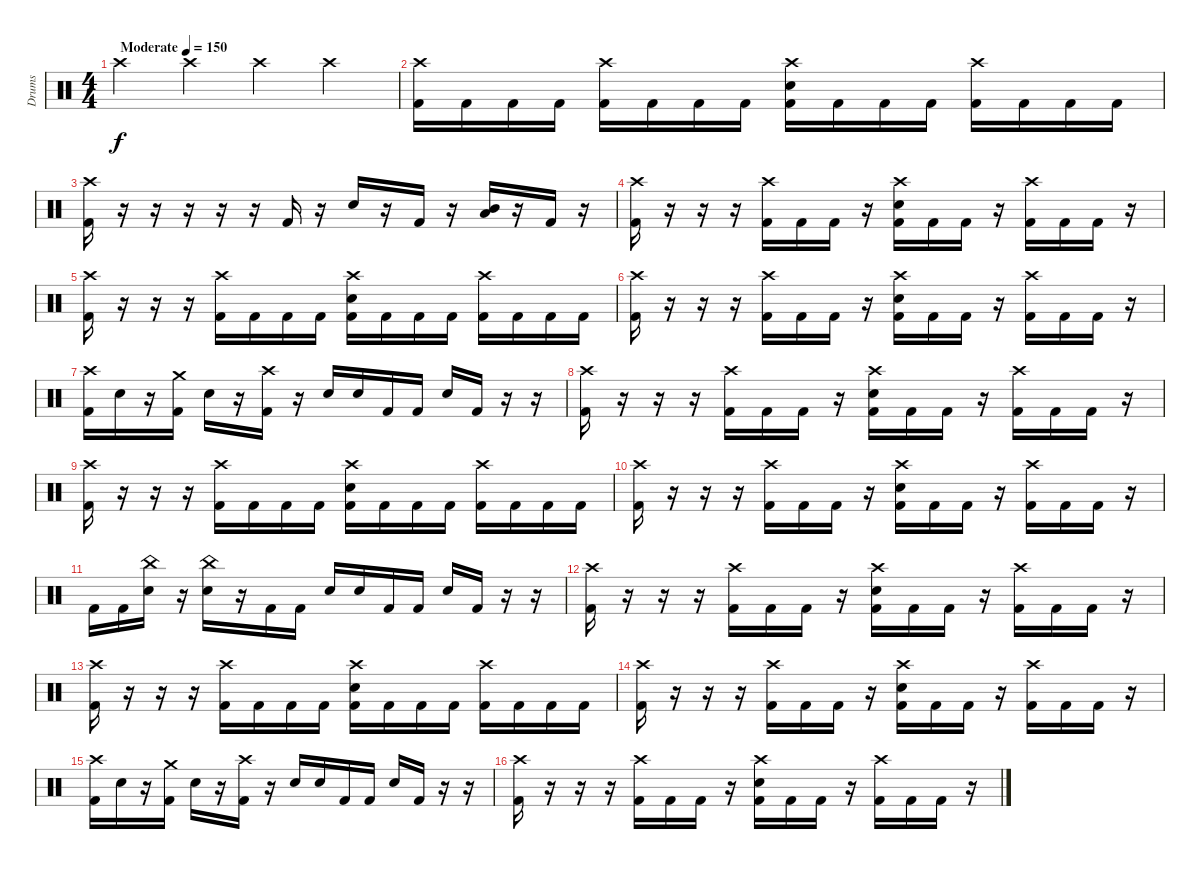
\track ("Drums" "Drums") {instrument percussion}
\staff {score}
\articulation defaults
\ts (4 4)
\tempo (150 "Moderate")
\clef neutral
\ks c "Crash high (hit)".4{dy f} "Crash high (hit)".4 "Crash high (hit)".4 "Crash high (hit)".4
|
("Crash high (hit)" "Kick (hit) 2").16 "Kick (hit) 2".16 "Kick (hit) 2".16 "Kick (hit) 2".16 ("Crash high (hit)" "Kick (hit) 2").16 "Kick (hit) 2".16 "Kick (hit) 2".16 "Kick (hit) 2".16 ("Crash high (hit)" "Snare (hit) 2" "Kick (hit) 2").16 "Kick (hit) 2".16 "Kick (hit) 2".16 "Kick (hit) 2".16 ("Crash high (hit)" "Kick (hit) 2").16 "Kick (hit) 2".16 "Kick (hit) 2".16 "Kick (hit) 2".16 |
("Crash high (hit)" "Kick (hit) 2").16 r.16 r.16 r.16 r.16 r.16 "Kick (hit) 2".16 r.16 "Snare (hit) 2".16 r.16 "Kick (hit) 2".16 r.16 ("Mid Tom (hit)" "Low Tom (hit)").16 r.16 "Kick (hit) 2".16 r.16 |
("Crash high (hit)" "Kick (hit) 2").16 r.16 r.16 r.16 ("Crash high (hit)" "Kick (hit) 2").16 "Kick (hit) 2".16 "Kick (hit) 2".16 r.16 ("Crash high (hit)" "Snare (hit) 2" "Kick (hit) 2").16 "Kick (hit) 2".16 "Kick (hit) 2".16 r.16 ("Crash high (hit)" "Kick (hit) 2").16 "Kick (hit) 2".16 "Kick (hit) 2".16 r.16 |
("Crash high (hit)" "Kick (hit) 2").16 r.16 r.16 r.16 ("Crash high (hit)" "Kick (hit) 2").16 "Kick (hit) 2".16 "Kick (hit) 2".16 "Kick (hit) 2".16 ("Crash high (hit)" "Snare (hit) 2" "Kick (hit) 2").16 "Kick (hit) 2".16 "Kick (hit) 2".16 "Kick (hit) 2".16 ("Crash high (hit)" "Kick (hit) 2").16 "Kick (hit) 2".16 "Kick (hit) 2".16 "Kick (hit) 2".16 |
("Crash high (hit)" "Kick (hit) 2").16 r.16 r.16 r.16 ("Crash high (hit)" "Kick (hit) 2").16 "Kick (hit) 2".16 "Kick (hit) 2".16 r.16 ("Crash high (hit)" "Snare (hit) 2" "Kick (hit) 2").16 "Kick (hit) 2".16 "Kick (hit) 2".16 r.16 ("Crash high (hit)" "Kick (hit) 2").16 "Kick (hit) 2".16 "Kick (hit) 2".16 r.16 |
("Crash high (hit)" "Kick (hit) 2").16 "Snare (hit) 2".16 r.16 ("Crash medium (hit)" "Kick (hit) 2").16 "Snare (hit) 2".16 r.16 ("Crash high (hit)" "Kick (hit) 2").16 r.16 "Snare (hit) 2".16 "Snare (hit) 2".16 "Kick (hit) 2".16 "Kick (hit) 2".16 "Snare (hit) 2".16 "Kick (hit) 2".16 r.16 r.16 |
("Crash high (hit)" "Kick (hit) 2").16 r.16 r.16 r.16 ("Crash high (hit)" "Kick (hit) 2").16 "Kick (hit) 2".16 "Kick (hit) 2".16 r.16 ("Crash high (hit)" "Snare (hit) 2" "Kick (hit) 2").16 "Kick (hit) 2".16 "Kick (hit) 2".16 r.16 ("Crash high (hit)" "Kick (hit) 2").16 "Kick (hit) 2".16 "Kick (hit) 2".16 r.16 |
("Crash high (hit)" "Kick (hit) 2").16 r.16 r.16 r.16 ("Crash high (hit)" "Kick (hit) 2").16 "Kick (hit) 2".16 "Kick (hit) 2".16 "Kick (hit) 2".16 ("Crash high (hit)" "Snare (hit) 2" "Kick (hit) 2").16 "Kick (hit) 2".16 "Kick (hit) 2".16 "Kick (hit) 2".16 ("Crash high (hit)" "Kick (hit) 2").16 "Kick (hit) 2".16 "Kick (hit) 2".16 "Kick (hit) 2".16 |
("Crash high (hit)" "Kick (hit) 2").16 r.16 r.16 r.16 ("Crash high (hit)" "Kick (hit) 2").16 "Kick (hit) 2".16 "Kick (hit) 2".16 r.16 ("Crash high (hit)" "Snare (hit) 2" "Kick (hit) 2").16 "Kick (hit) 2".16 "Kick (hit) 2".16 r.16 ("Crash high (hit)" "Kick (hit) 2").16 "Kick (hit) 2".16 "Kick (hit) 2".16 r.16 |
"Kick (hit) 2".16 "Kick (hit) 2".16 ("China (hit)" "Snare (hit) 2").16 r.16 ("China (hit)" "Snare (hit) 2").16 r.16 "Kick (hit) 2".16 "Kick (hit) 2".16 "Snare (hit) 2".16 "Snare (hit) 2".16 "Kick (hit) 2".16 "Kick (hit) 2".16 "Snare (hit) 2".16 "Kick (hit) 2".16 r.16 r.16 |
("Crash high (hit)" "Kick (hit) 2").16 r.16 r.16 r.16 ("Crash high (hit)" "Kick (hit) 2").16 "Kick (hit) 2".16 "Kick (hit) 2".16 r.16 ("Crash high (hit)" "Snare (hit) 2" "Kick (hit) 2").16 "Kick (hit) 2".16 "Kick (hit) 2".16 r.16 ("Crash high (hit)" "Kick (hit) 2").16 "Kick (hit) 2".16 "Kick (hit) 2".16 r.16 |
("Crash high (hit)" "Kick (hit) 2").16 r.16 r.16 r.16 ("Crash high (hit)" "Kick (hit) 2").16 "Kick (hit) 2".16 "Kick (hit) 2".16 "Kick (hit) 2".16 ("Crash high (hit)" "Snare (hit) 2" "Kick (hit) 2").16 "Kick (hit) 2".16 "Kick (hit) 2".16 "Kick (hit) 2".16 ("Crash high (hit)" "Kick (hit) 2").16 "Kick (hit) 2".16 "Kick (hit) 2".16 "Kick (hit) 2".16 |
("Crash high (hit)" "Kick (hit) 2").16 r.16 r.16 r.16 ("Crash high (hit)" "Kick (hit) 2").16 "Kick (hit) 2".16 "Kick (hit) 2".16 r.16 ("Crash high (hit)" "Snare (hit) 2" "Kick (hit) 2").16 "Kick (hit) 2".16 "Kick (hit) 2".16 r.16 ("Crash high (hit)" "Kick (hit) 2").16 "Kick (hit) 2".16 "Kick (hit) 2".16 r.16 |
("Crash high (hit)" "Kick (hit) 2").16 "Snare (hit) 2".16 r.16 ("Crash medium (hit)" "Kick (hit) 2").16 "Snare (hit) 2".16 r.16 ("Crash high (hit)" "Kick (hit) 2").16 r.16 "Snare (hit) 2".16 "Snare (hit) 2".16 "Kick (hit) 2".16 "Kick (hit) 2".16 "Snare (hit) 2".16 "Kick (hit) 2".16 r.16 r.16 |
("Crash high (hit)" "Kick (hit) 2").16 r.16 r.16 r.16 ("Crash high (hit)" "Kick (hit) 2").16 "Kick (hit) 2".16 "Kick (hit) 2".16 r.16 ("Crash high (hit)" "Snare (hit) 2" "Kick (hit) 2").16 "Kick (hit) 2".16 "Kick (hit) 2".16 r.16 ("Crash high (hit)" "Kick (hit) 2").16 "Kick (hit) 2".16 "Kick (hit) 2".16 r.16
